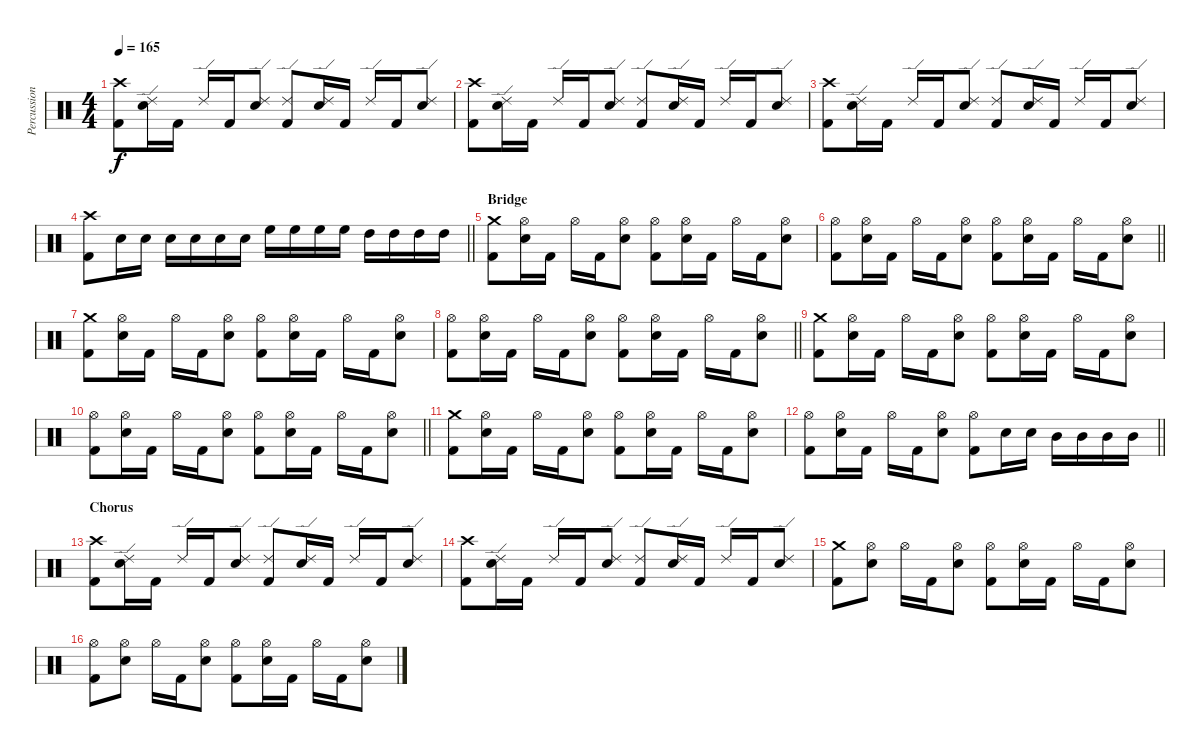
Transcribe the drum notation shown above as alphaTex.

\track ("Percussion" "Percussion") {instrument percussion}
\staff {score}
\articulation defaults
\ts (4 4)
\tempo 165
\clef neutral
\ks c
("Crash high (hit)" "Kick (hit) 2").8{dy f} ("Ride (edge) 2" "Electric Snare (hit)").16 "Kick (hit) 2".16 "Ride (edge) 2".16 "Kick (hit) 2".16 ("Ride (edge) 2" "Electric Snare (hit)").8 ("Ride (edge) 2" "Kick (hit) 2").8 ("Ride (edge) 2" "Electric Snare (hit)").16 "Kick (hit) 2".16 "Ride (edge) 2".16 "Kick (hit) 2".16 ("Ride (edge) 2" "Electric Snare (hit)").8 |
("Crash high (hit)" "Kick (hit) 2").8 ("Ride (edge) 2" "Electric Snare (hit)").16 "Kick (hit) 2".16 "Ride (edge) 2".16 "Kick (hit) 2".16 ("Ride (edge) 2" "Electric Snare (hit)").8 ("Ride (edge) 2" "Kick (hit) 2").8 ("Ride (edge) 2" "Electric Snare (hit)").16 "Kick (hit) 2".16 "Ride (edge) 2".16 "Kick (hit) 2".16 ("Ride (edge) 2" "Electric Snare (hit)").8 |
("Crash high (hit)" "Kick (hit) 2").8 ("Ride (edge) 2" "Electric Snare (hit)").16 "Kick (hit) 2".16 "Ride (edge) 2".16 "Kick (hit) 2".16 ("Ride (edge) 2" "Electric Snare (hit)").8 ("Ride (edge) 2" "Kick (hit) 2").8 ("Ride (edge) 2" "Electric Snare (hit)").16 "Kick (hit) 2".16 "Ride (edge) 2".16 "Kick (hit) 2".16 ("Ride (edge) 2" "Electric Snare (hit)").8 |
\barLineRight lightlight
("Crash high (hit)" "Kick (hit) 2").8 "Electric Snare (hit)".16 "Electric Snare (hit)".16 "Electric Snare (hit)".16 "Electric Snare (hit)".16 "Electric Snare (hit)".16 "Electric Snare (hit)".16 "High Floor Tom (hit)".16 "High Floor Tom (hit)".16 "High Floor Tom (hit)".16 "High Floor Tom (hit)".16 "High Tom (hit)".16 "High Tom (hit)".16 "High Tom (hit)".16 "High Tom (hit)".16 |
\section ("" "Bridge")
("Crash medium (hit)" "Kick (hit) 2").8 ("Hi-Hat (open)" "Electric Snare (hit)").16 "Kick (hit) 2".16 "Hi-Hat (open)".16 "Kick (hit) 2".16 ("Hi-Hat (open)" "Electric Snare (hit)").8 ("Hi-Hat (open)" "Kick (hit) 2").8 ("Hi-Hat (open)" "Electric Snare (hit)").16 "Kick (hit) 2".16 "Hi-Hat (open)".16 "Kick (hit) 2".16 ("Hi-Hat (open)" "Electric Snare (hit)").8 |
\barLineRight lightlight
("Hi-Hat (open)" "Kick (hit) 2").8 ("Hi-Hat (open)" "Electric Snare (hit)").16 "Kick (hit) 2".16 "Hi-Hat (open)".16 "Kick (hit) 2".16 ("Hi-Hat (open)" "Electric Snare (hit)").8 ("Hi-Hat (open)" "Kick (hit) 2").8 ("Hi-Hat (open)" "Electric Snare (hit)").16 "Kick (hit) 2".16 "Hi-Hat (open)".16 "Kick (hit) 2".16 ("Hi-Hat (open)" "Electric Snare (hit)").8 |
("Crash medium (hit)" "Kick (hit) 2").8 ("Hi-Hat (open)" "Electric Snare (hit)").16 "Kick (hit) 2".16 "Hi-Hat (open)".16 "Kick (hit) 2".16 ("Hi-Hat (open)" "Electric Snare (hit)").8 ("Hi-Hat (open)" "Kick (hit) 2").8 ("Hi-Hat (open)" "Electric Snare (hit)").16 "Kick (hit) 2".16 "Hi-Hat (open)".16 "Kick (hit) 2".16 ("Hi-Hat (open)" "Electric Snare (hit)").8 |
\barLineRight lightlight
("Hi-Hat (open)" "Kick (hit) 2").8 ("Hi-Hat (open)" "Electric Snare (hit)").16 "Kick (hit) 2".16 "Hi-Hat (open)".16 "Kick (hit) 2".16 ("Hi-Hat (open)" "Electric Snare (hit)").8 ("Hi-Hat (open)" "Kick (hit) 2").8 ("Hi-Hat (open)" "Electric Snare (hit)").16 "Kick (hit) 2".16 "Hi-Hat (open)".16 "Kick (hit) 2".16 ("Hi-Hat (open)" "Electric Snare (hit)").8 |
("Crash medium (hit)" "Kick (hit) 2").8 ("Hi-Hat (open)" "Electric Snare (hit)").16 "Kick (hit) 2".16 "Hi-Hat (open)".16 "Kick (hit) 2".16 ("Hi-Hat (open)" "Electric Snare (hit)").8 ("Hi-Hat (open)" "Kick (hit) 2").8 ("Hi-Hat (open)" "Electric Snare (hit)").16 "Kick (hit) 2".16 "Hi-Hat (open)".16 "Kick (hit) 2".16 ("Hi-Hat (open)" "Electric Snare (hit)").8 |
\barLineRight lightlight
("Hi-Hat (open)" "Kick (hit) 2").8 ("Hi-Hat (open)" "Electric Snare (hit)").16 "Kick (hit) 2".16 "Hi-Hat (open)".16 "Kick (hit) 2".16 ("Hi-Hat (open)" "Electric Snare (hit)").8 ("Hi-Hat (open)" "Kick (hit) 2").8 ("Hi-Hat (open)" "Electric Snare (hit)").16 "Kick (hit) 2".16 "Hi-Hat (open)".16 "Kick (hit) 2".16 ("Hi-Hat (open)" "Electric Snare (hit)").8 |
("Crash medium (hit)" "Kick (hit) 2").8 ("Hi-Hat (open)" "Electric Snare (hit)").16 "Kick (hit) 2".16 "Hi-Hat (open)".16 "Kick (hit) 2".16 ("Hi-Hat (open)" "Electric Snare (hit)").8 ("Hi-Hat (open)" "Kick (hit) 2").8 ("Hi-Hat (open)" "Electric Snare (hit)").16 "Kick (hit) 2".16 "Hi-Hat (open)".16 "Kick (hit) 2".16 ("Hi-Hat (open)" "Electric Snare (hit)").8 |
\barLineRight lightlight
("Hi-Hat (open)" "Kick (hit) 2").8 ("Hi-Hat (open)" "Electric Snare (hit)").16 "Kick (hit) 2".16 "Hi-Hat (open)".16 "Kick (hit) 2".16 ("Hi-Hat (open)" "Electric Snare (hit)").8 ("Hi-Hat (open)" "Kick (hit) 2").8 "Electric Snare (hit)".16 "Electric Snare (hit)".16 "Mid Tom (hit)".16 "Mid Tom (hit)".16 "Mid Tom (hit)".16 "Mid Tom (hit)".16 |
\section ("" "Chorus")
("Crash high (hit)" "Kick (hit) 2").8 ("Ride (edge) 2" "Electric Snare (hit)").16 "Kick (hit) 2".16 "Ride (edge) 2".16 "Kick (hit) 2".16 ("Ride (edge) 2" "Electric Snare (hit)").8 ("Ride (edge) 2" "Kick (hit) 2").8 ("Ride (edge) 2" "Electric Snare (hit)").16 "Kick (hit) 2".16 "Ride (edge) 2".16 "Kick (hit) 2".16 ("Ride (edge) 2" "Electric Snare (hit)").8 |
("Crash high (hit)" "Kick (hit) 2").8 ("Ride (edge) 2" "Electric Snare (hit)").16 "Kick (hit) 2".16 "Ride (edge) 2".16 "Kick (hit) 2".16 ("Ride (edge) 2" "Electric Snare (hit)").8 ("Ride (edge) 2" "Kick (hit) 2").8 ("Ride (edge) 2" "Electric Snare (hit)").16 "Kick (hit) 2".16 "Ride (edge) 2".16 "Kick (hit) 2".16 ("Ride (edge) 2" "Electric Snare (hit)").8 |
("Crash medium (hit)" "Kick (hit) 2").8 ("Hi-Hat (open)" "Electric Snare (hit)").8 "Hi-Hat (open)".16 "Kick (hit) 2".16 ("Hi-Hat (open)" "Electric Snare (hit)").8 ("Hi-Hat (open)" "Kick (hit) 2").8 ("Hi-Hat (open)" "Electric Snare (hit)").16 "Kick (hit) 2".16 "Hi-Hat (open)".16 "Kick (hit) 2".16 ("Hi-Hat (open)" "Electric Snare (hit)").8 |
("Hi-Hat (open)" "Kick (hit) 2").8 ("Hi-Hat (open)" "Electric Snare (hit)").8 "Hi-Hat (open)".16 "Kick (hit) 2".16 ("Hi-Hat (open)" "Electric Snare (hit)").8 ("Hi-Hat (open)" "Kick (hit) 2").8 ("Hi-Hat (open)" "Electric Snare (hit)").16 "Kick (hit) 2".16 "Hi-Hat (open)".16 "Kick (hit) 2".16 ("Hi-Hat (open)" "Electric Snare (hit)").8
